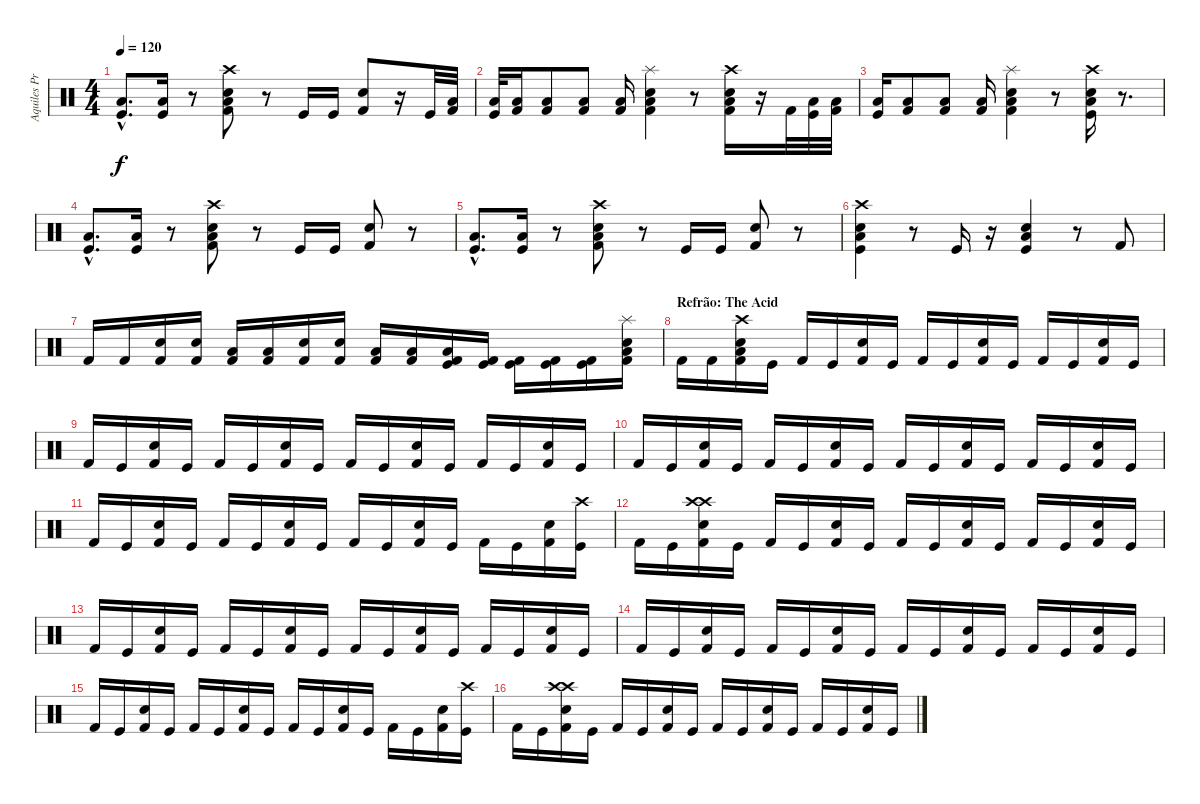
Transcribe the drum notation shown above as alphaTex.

\track ("Aquiles Priester" "Aquiles Pr") {instrument percussion}
\staff {score}
\articulation defaults
\ts (4 4)
\tempo 120
\clef neutral
\ks c
("Kick (hit)"{hac} "Low Floor Tom (hit)"{hac}).8{d dy f} ("Kick (hit)" "Low Floor Tom (hit)").16 r.8 ("Kick (hit) 2" "Electric Snare (hit)" "Low Floor Tom (hit)" "Crash high (hit)").8 r.8 "Kick (hit)".16 "Kick (hit)".16 ("Kick (hit) 2" "Electric Snare (hit)").8 r.16 "Kick (hit)".32 ("Kick (hit) 2" "Low Floor Tom (hit)").32 |
("Kick (hit)" "Low Floor Tom (hit)").32 ("Kick (hit) 2" "Low Floor Tom (hit)").16 ("Kick (hit) 2" "Low Floor Tom (hit)").8 ("Kick (hit) 2" "Low Floor Tom (hit)").8 ("Kick (hit) 2" "Low Floor Tom (hit)").16 ("Kick (hit) 2" "Low Floor Tom (hit)" "Electric Snare (hit)" "Splash (hit)").4 r.8 ("Kick (hit) 2" "Low Floor Tom (hit)" "Electric Snare (hit)" "Crash high (hit)").16 r.16 "Kick (hit) 2".32 ("Kick (hit)" "Low Floor Tom (hit)").32 ("Kick (hit) 2" "Low Floor Tom (hit)").32 |
("Kick (hit)" "Low Floor Tom (hit)").16 ("Kick (hit) 2" "Low Floor Tom (hit)").8 ("Kick (hit) 2" "Low Floor Tom (hit)").8 ("Kick (hit) 2" "Low Floor Tom (hit)").16 ("Kick (hit) 2" "Low Floor Tom (hit)" "Electric Snare (hit)" "Splash (hit)").4 r.8 ("Kick (hit)" "Low Floor Tom (hit)" "Electric Snare (hit)" "Crash high (hit)").16 r.8{d} |
("Kick (hit)"{hac} "Low Floor Tom (hit)"{hac}).8{d} ("Kick (hit)" "Low Floor Tom (hit)").16 r.8 ("Kick (hit) 2" "Electric Snare (hit)" "Low Floor Tom (hit)" "Crash high (hit)").8 r.8 "Kick (hit)".16 "Kick (hit)".16 ("Kick (hit) 2" "Electric Snare (hit)").8 r.8 |
("Kick (hit)"{hac} "Low Floor Tom (hit)"{hac}).8{d} ("Kick (hit)" "Low Floor Tom (hit)").16 r.8 ("Kick (hit) 2" "Electric Snare (hit)" "Low Floor Tom (hit)" "Crash high (hit)").8 r.8 "Kick (hit)".16 "Kick (hit)".16 ("Kick (hit) 2" "Electric Snare (hit)").8 r.8 |
("Kick (hit)" "Low Floor Tom (hit)" "Electric Snare (hit)" "Crash high (hit)").4 r.8 "Kick (hit)".16 r.16 ("Kick (hit)" "Low Floor Tom (hit)" "Electric Snare (hit)").4 r.8 "Kick (hit) 2".8 |
"Kick (hit) 2".16 "Kick (hit) 2".16 ("Kick (hit) 2" "Electric Snare (hit)").16 ("Kick (hit) 2" "Electric Snare (hit)").16 ("Kick (hit) 2" "Low Floor Tom (hit)").16 ("Kick (hit) 2" "Low Floor Tom (hit)").16 ("Kick (hit) 2" "Electric Snare (hit)").16 ("Kick (hit) 2" "Electric Snare (hit)").16 ("Kick (hit) 2" "Low Floor Tom (hit)").16 ("Kick (hit) 2" "Low Floor Tom (hit)").16 ("Kick (hit) 2" "Kick (hit)" "Low Floor Tom (hit)").16 ("Kick (hit) 2" "Kick (hit)").16 ("Kick (hit) 2" "Kick (hit)").16 ("Kick (hit) 2" "Kick (hit)").16 ("Kick (hit) 2" "Kick (hit)").16 ("Kick (hit) 2" "Low Floor Tom (hit)" "Electric Snare (hit)" "Splash (hit)").16 |
\section ("" "Refrão: The Acid ")
"Kick (hit) 2".16 "Kick (hit) 2".16 ("Kick (hit) 2" "Low Floor Tom (hit)" "Electric Snare (hit)" "Crash high (hit)").16 "Kick (hit)".16 "Kick (hit) 2".16 "Kick (hit)".16 ("Kick (hit) 2" "Electric Snare (hit)").16 "Kick (hit)".16 "Kick (hit) 2".16 "Kick (hit)".16 ("Kick (hit) 2" "Electric Snare (hit)").16 "Kick (hit)".16 "Kick (hit) 2".16 "Kick (hit)".16 ("Kick (hit) 2" "Electric Snare (hit)").16 "Kick (hit)".16 |
"Kick (hit) 2".16 "Kick (hit)".16 ("Kick (hit) 2" "Electric Snare (hit)").16 "Kick (hit)".16 "Kick (hit) 2".16 "Kick (hit)".16 ("Kick (hit) 2" "Electric Snare (hit)").16 "Kick (hit)".16 "Kick (hit) 2".16 "Kick (hit)".16 ("Kick (hit) 2" "Electric Snare (hit)").16 "Kick (hit)".16 "Kick (hit) 2".16 "Kick (hit)".16 ("Kick (hit) 2" "Electric Snare (hit)").16 "Kick (hit)".16 |
"Kick (hit) 2".16 "Kick (hit)".16 ("Kick (hit) 2" "Electric Snare (hit)").16 "Kick (hit)".16 "Kick (hit) 2".16 "Kick (hit)".16 ("Kick (hit) 2" "Electric Snare (hit)").16 "Kick (hit)".16 "Kick (hit) 2".16 "Kick (hit)".16 ("Kick (hit) 2" "Electric Snare (hit)").16 "Kick (hit)".16 "Kick (hit) 2".16 "Kick (hit)".16 ("Kick (hit) 2" "Electric Snare (hit)").16 "Kick (hit)".16 |
"Kick (hit) 2".16 "Kick (hit)".16 ("Kick (hit) 2" "Electric Snare (hit)").16 "Kick (hit)".16 "Kick (hit) 2".16 "Kick (hit)".16 ("Kick (hit) 2" "Electric Snare (hit)").16 "Kick (hit)".16 "Kick (hit) 2".16 "Kick (hit)".16 ("Kick (hit) 2" "Electric Snare (hit)").16 "Kick (hit)".16 "Kick (hit) 2".16 "Kick (hit)".16 ("Kick (hit) 2" "Electric Snare (hit)").16 ("Kick (hit)" "Crash high (hit)").16 |
"Kick (hit) 2".16 "Kick (hit)".16 ("Kick (hit) 2" "Electric Snare (hit)" "Crash high (hit)" "Crash high (hit)").16 "Kick (hit)".16 "Kick (hit) 2".16 "Kick (hit)".16 ("Kick (hit) 2" "Electric Snare (hit)").16 "Kick (hit)".16 "Kick (hit) 2".16 "Kick (hit)".16 ("Kick (hit) 2" "Electric Snare (hit)").16 "Kick (hit)".16 "Kick (hit) 2".16 "Kick (hit)".16 ("Kick (hit) 2" "Electric Snare (hit)").16 "Kick (hit)".16 |
"Kick (hit) 2".16 "Kick (hit)".16 ("Kick (hit) 2" "Electric Snare (hit)").16 "Kick (hit)".16 "Kick (hit) 2".16 "Kick (hit)".16 ("Kick (hit) 2" "Electric Snare (hit)").16 "Kick (hit)".16 "Kick (hit) 2".16 "Kick (hit)".16 ("Kick (hit) 2" "Electric Snare (hit)").16 "Kick (hit)".16 "Kick (hit) 2".16 "Kick (hit)".16 ("Kick (hit) 2" "Electric Snare (hit)").16 "Kick (hit)".16 |
"Kick (hit) 2".16 "Kick (hit)".16 ("Kick (hit) 2" "Electric Snare (hit)").16 "Kick (hit)".16 "Kick (hit) 2".16 "Kick (hit)".16 ("Kick (hit) 2" "Electric Snare (hit)").16 "Kick (hit)".16 "Kick (hit) 2".16 "Kick (hit)".16 ("Kick (hit) 2" "Electric Snare (hit)").16 "Kick (hit)".16 "Kick (hit) 2".16 "Kick (hit)".16 ("Kick (hit) 2" "Electric Snare (hit)").16 "Kick (hit)".16 |
"Kick (hit) 2".16 "Kick (hit)".16 ("Kick (hit) 2" "Electric Snare (hit)").16 "Kick (hit)".16 "Kick (hit) 2".16 "Kick (hit)".16 ("Kick (hit) 2" "Electric Snare (hit)").16 "Kick (hit)".16 "Kick (hit) 2".16 "Kick (hit)".16 ("Kick (hit) 2" "Electric Snare (hit)").16 "Kick (hit)".16 "Kick (hit) 2".16 "Kick (hit)".16 ("Kick (hit) 2" "Electric Snare (hit)").16 ("Kick (hit)" "Crash high (hit)").16 |
"Kick (hit) 2".16 "Kick (hit)".16 ("Kick (hit) 2" "Electric Snare (hit)" "Crash high (hit)" "Crash high (hit)").16 "Kick (hit)".16 "Kick (hit) 2".16 "Kick (hit)".16 ("Kick (hit) 2" "Electric Snare (hit)").16 "Kick (hit)".16 "Kick (hit) 2".16 "Kick (hit)".16 ("Kick (hit) 2" "Electric Snare (hit)").16 "Kick (hit)".16 "Kick (hit) 2".16 "Kick (hit)".16 ("Kick (hit) 2" "Electric Snare (hit)").16 "Kick (hit)".16
